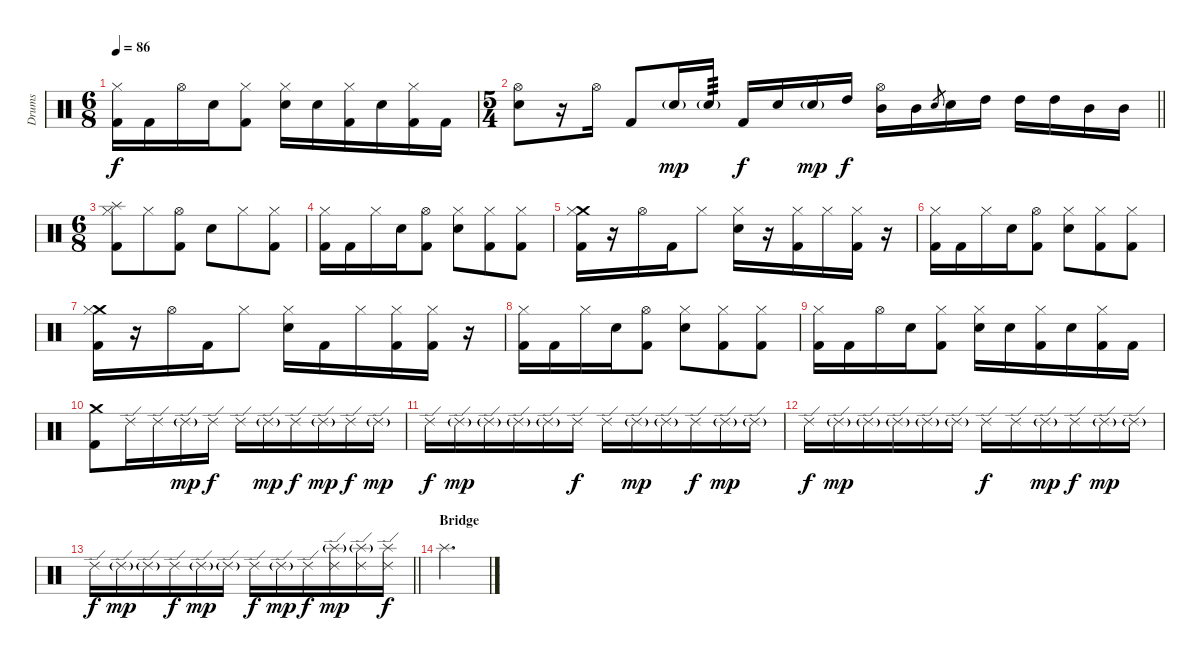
\track ("Drums" "Drums") {instrument percussion}
\staff {score}
\articulation defaults
\ts (6 8)
\tempo 86
\clef neutral
\ks c
("Hi-Hat (closed)" "Kick (hit) 2").16{dy f} "Kick (hit) 2".16 "Hi-Hat (open)".16 "Electric Snare (hit)".16 ("Hi-Hat (closed)" "Kick (hit) 2").8 ("Hi-Hat (closed)" "Electric Snare (hit)").16 "Electric Snare (hit)".16 ("Hi-Hat (closed)" "Kick (hit) 2").16 "Electric Snare (hit)".16 ("Hi-Hat (closed)" "Kick (hit) 2").16 "Kick (hit) 2".16 |
\ts (5 4)
\barLineRight lightlight
("Hi-Hat (open)" "Electric Snare (hit)").8 r.16 "Hi-Hat (open)".16 "Kick (hit) 2".8 "Electric Snare (hit)"{g}.16{dy mp} "Electric Snare (hit)"{g}.16{tp 3} "Kick (hit) 2".16{dy f} "Electric Snare (hit)".16 "Electric Snare (hit)"{g}.16{dy mp} "High Tom (hit)".16{dy f} ("Hi-Hat (open)" "Mid Tom (hit)").16 "Mid Tom (hit)".16 "Electric Snare (hit)".8{gr} "Electric Snare (hit)".16 "High Tom (hit)".16 "High Tom (hit)".16 "High Tom (hit)".16 "Mid Tom (hit)".16 "Mid Tom (hit)".16 |
\ts (6 8)
("Splash (hit)" "Hi-Hat (closed)" "Kick (hit) 2").8 "Hi-Hat (closed)".8 ("Hi-Hat (open)" "Kick (hit) 2").8 "Electric Snare (hit)".8 "Hi-Hat (closed)".8 ("Hi-Hat (closed)" "Kick (hit) 2").8 |
("Hi-Hat (closed)" "Kick (hit) 2").16 "Kick (hit) 2".16 "Hi-Hat (closed)".16 "Electric Snare (hit)".16 ("Hi-Hat (open)" "Kick (hit) 2").8 ("Hi-Hat (closed)" "Electric Snare (hit)").8 ("Hi-Hat (closed)" "Kick (hit) 2").8 ("Hi-Hat (closed)" "Kick (hit) 2").8 |
("Crash medium (hit)" "Hi-Hat (closed)" "Kick (hit) 2").16 r.16 "Hi-Hat (open)".16 "Kick (hit) 2".16 "Hi-Hat (closed)".8 ("Hi-Hat (closed)" "Electric Snare (hit)").16 r.16 ("Hi-Hat (closed)" "Kick (hit) 2").16 "Hi-Hat (closed)".16 ("Hi-Hat (closed)" "Kick (hit) 2").16 r.16 |
("Hi-Hat (closed)" "Kick (hit) 2").16 "Kick (hit) 2".16 "Hi-Hat (closed)".16 "Electric Snare (hit)".16 ("Hi-Hat (open)" "Kick (hit) 2").8 ("Hi-Hat (closed)" "Electric Snare (hit)").8 ("Hi-Hat (closed)" "Kick (hit) 2").8 ("Hi-Hat (closed)" "Kick (hit) 2").8 |
("Crash medium (hit)" "Hi-Hat (closed)" "Kick (hit) 2").16 r.16 "Hi-Hat (open)".16 "Kick (hit) 2".16 "Hi-Hat (closed)".8 ("Hi-Hat (closed)" "Electric Snare (hit)").16 "Kick (hit) 2".16 "Hi-Hat (closed)".16 ("Hi-Hat (closed)" "Kick (hit) 2").16 ("Hi-Hat (closed)" "Kick (hit) 2").16 r.16 |
("Hi-Hat (closed)" "Kick (hit) 2").16 "Kick (hit) 2".16 "Hi-Hat (closed)".16 "Electric Snare (hit)".16 ("Hi-Hat (open)" "Kick (hit) 2").8 ("Hi-Hat (closed)" "Electric Snare (hit)").8 ("Hi-Hat (closed)" "Kick (hit) 2").8 ("Hi-Hat (closed)" "Kick (hit) 2").8 |
("Hi-Hat (closed)" "Kick (hit) 2").16 "Kick (hit) 2".16 "Hi-Hat (open)".16 "Electric Snare (hit)".16 ("Hi-Hat (closed)" "Kick (hit) 2").8 ("Hi-Hat (closed)" "Electric Snare (hit)").16 "Electric Snare (hit)".16 ("Hi-Hat (closed)" "Kick (hit) 2").16 "Electric Snare (hit)".16 ("Hi-Hat (closed)" "Kick (hit) 2").16 "Kick (hit) 2".16 |
("Crash medium (hit)" "Kick (hit) 2").8 "Ride (edge) 2".16 "Ride (edge) 2".16 "Ride (edge) 2"{g}.16{dy mp} "Ride (edge) 2".16{dy f} "Ride (edge) 2".16 "Ride (edge) 2"{g}.16{dy mp} "Ride (edge) 2".16{dy f} "Ride (edge) 2"{g}.16{dy mp} "Ride (edge) 2".16{dy f} "Ride (edge) 2"{g}.16{dy mp} |
"Ride (edge) 2".16{dy f} "Ride (edge) 2"{g}.16{dy mp} "Ride (edge) 2"{g}.16 "Ride (edge) 2"{g}.16 "Ride (edge) 2"{g}.16 "Ride (edge) 2".16{dy f} "Ride (edge) 2".16 "Ride (edge) 2"{g}.16{dy mp} "Ride (edge) 2"{g}.16 "Ride (edge) 2".16{dy f} "Ride (edge) 2"{g}.16{dy mp} "Ride (edge) 2"{g}.16 |
"Ride (edge) 2".16{dy f} "Ride (edge) 2"{g}.16{dy mp} "Ride (edge) 2"{g}.16 "Ride (edge) 2"{g}.16 "Ride (edge) 2"{g}.16 "Ride (edge) 2"{g}.16 "Ride (edge) 2".16{dy f} "Ride (edge) 2".16 "Ride (edge) 2"{g}.16{dy mp} "Ride (edge) 2".16{dy f} "Ride (edge) 2"{g}.16{dy mp} "Ride (edge) 2"{g}.16 |
\barLineRight lightlight "Ride (edge) 2".16{dy f} "Ride (edge) 2"{g}.16{dy mp} "Ride (edge) 2"{g}.16 "Ride (edge) 2".16{dy f} "Ride (edge) 2"{g}.16{dy mp} "Ride (edge) 2"{g}.16 "Ride (edge) 2".16{dy f} "Ride (edge) 2"{g}.16{dy mp} "Ride (edge) 2".16{dy f}
("Splash (hit)"{g} "Ride (edge) 2").16{dy mp} ("Splash (hit)"{g} "Ride (edge) 2").16 ("Splash (hit)" "Ride (edge) 2").16{dy f} |
\section ("" "Bridge")
"Splash (hit)".2{d}
